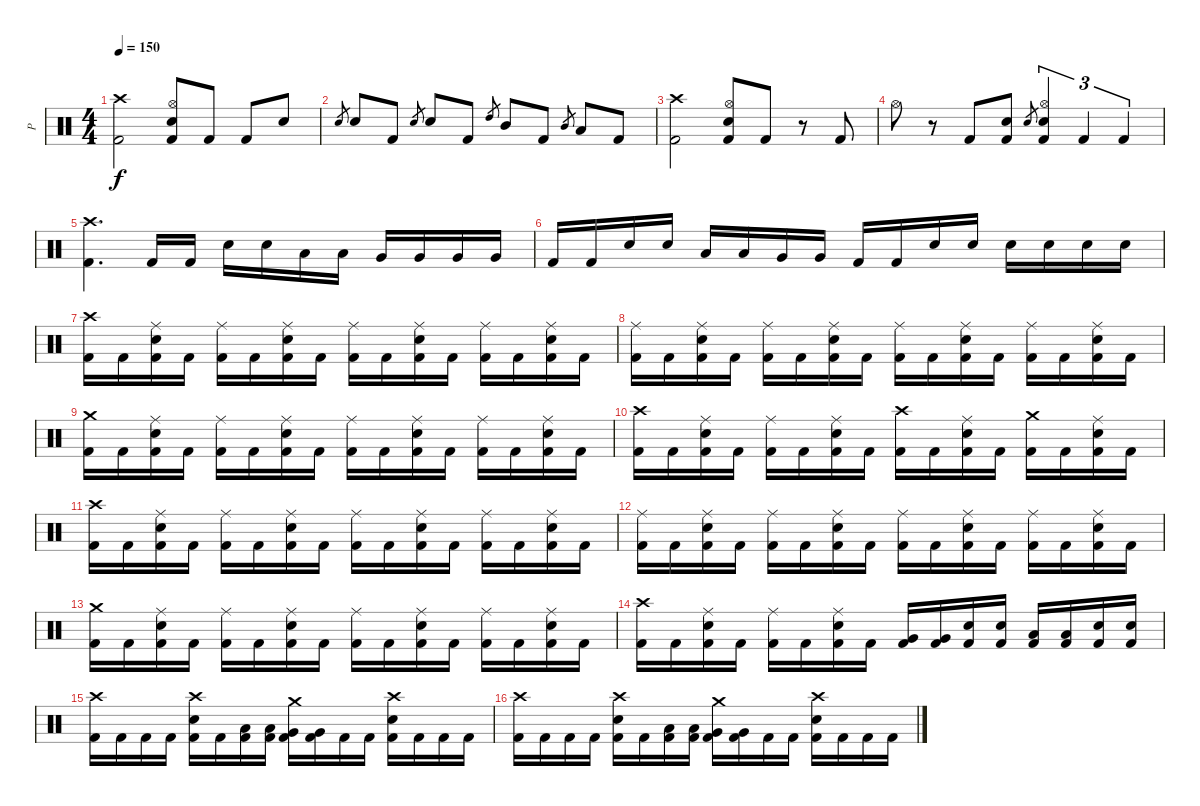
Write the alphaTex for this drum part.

\track ("P" "P") {instrument percussion}
\staff {score}
\articulation defaults
\ts (4 4)
\tempo 150
\clef neutral
\ks c
("Crash high (hit)" "Kick (hit) 2").2{dy f} ("Hi-Hat (open)" "Electric Snare (hit)" "Kick (hit) 2").8 "Kick (hit) 2".8 "Kick (hit) 2".8 "Electric Snare (hit)".8 |
"Electric Snare (hit)".8{gr} "Electric Snare (hit)".8 "Kick (hit) 2".8 "Electric Snare (hit)".8{gr} "Electric Snare (hit)".8 "Kick (hit) 2".8 "High Tom (hit)".8{gr} "Mid Tom (hit)".8 "Kick (hit) 2".8 "Mid Tom (hit)".8{gr} "Low Tom (hit)".8 "Kick (hit) 2".8 |
("Crash high (hit)" "Kick (hit) 2").2 ("Hi-Hat (open)" "Electric Snare (hit)" "Kick (hit) 2").8 "Kick (hit) 2".8 r.8 "Kick (hit) 2".8 |
"Hi-Hat (open)".8 r.8 "Kick (hit) 2".8 ("Electric Snare (hit)" "Kick (hit) 2").8 "Electric Snare (hit)".8{gr} ("Hi-Hat (open)" "Electric Snare (hit)" "Kick (hit) 2").4{tu (3 2)} "Kick (hit) 2".4{tu (3 2)} "Kick (hit) 2".4{tu (3 2)} |
("Crash high (hit)" "Kick (hit) 2").4{d} "Kick (hit) 2".16 "Kick (hit) 2".16 "Electric Snare (hit)".16 "Electric Snare (hit)".16 "Low Tom (hit)".16 "Low Tom (hit)".16 "Very Low Tom (hit)".16 "Very Low Tom (hit)".16 "Very Low Tom (hit)".16 "Very Low Tom (hit)".16 |
"Kick (hit) 2".16 "Kick (hit) 2".16 "Electric Snare (hit)".16 "Electric Snare (hit)".16 "Low Tom (hit)".16 "Low Tom (hit)".16 "Very Low Tom (hit)".16 "Very Low Tom (hit)".16 "Kick (hit) 2".16 "Kick (hit) 2".16 "Electric Snare (hit)".16 "Electric Snare (hit)".16 "Electric Snare (hit)".16 "Electric Snare (hit)".16 "Electric Snare (hit)".16 "Electric Snare (hit)".16 |
("Crash high (hit)" "Kick (hit) 2").16 "Kick (hit) 2".16 ("Ride (middle)" "Electric Snare (hit)" "Kick (hit) 2").16 "Kick (hit) 2".16 ("Ride (middle)" "Kick (hit) 2").16 "Kick (hit) 2".16 ("Ride (middle)" "Electric Snare (hit)" "Kick (hit) 2").16 "Kick (hit) 2".16 ("Ride (middle)" "Kick (hit) 2").16 "Kick (hit) 2".16 ("Ride (middle)" "Electric Snare (hit)" "Kick (hit) 2").16 "Kick (hit) 2".16 ("Ride (middle)" "Kick (hit) 2").16 "Kick (hit) 2".16 ("Ride (middle)" "Electric Snare (hit)" "Kick (hit) 2").16 "Kick (hit) 2".16 |
("Ride (middle)" "Kick (hit) 2").16 "Kick (hit) 2".16 ("Ride (middle)" "Electric Snare (hit)" "Kick (hit) 2").16 "Kick (hit) 2".16 ("Ride (middle)" "Kick (hit) 2").16 "Kick (hit) 2".16 ("Ride (middle)" "Electric Snare (hit)" "Kick (hit) 2").16 "Kick (hit) 2".16 ("Ride (middle)" "Kick (hit) 2").16 "Kick (hit) 2".16 ("Ride (middle)" "Electric Snare (hit)" "Kick (hit) 2").16 "Kick (hit) 2".16 ("Ride (middle)" "Kick (hit) 2").16 "Kick (hit) 2".16 ("Ride (middle)" "Electric Snare (hit)" "Kick (hit) 2").16 "Kick (hit) 2".16 |
("Crash medium (hit)" "Kick (hit) 2").16 "Kick (hit) 2".16 ("Ride (middle)" "Electric Snare (hit)" "Kick (hit) 2").16 "Kick (hit) 2".16 ("Ride (middle)" "Kick (hit) 2").16 "Kick (hit) 2".16 ("Ride (middle)" "Electric Snare (hit)" "Kick (hit) 2").16 "Kick (hit) 2".16 ("Ride (middle)" "Kick (hit) 2").16 "Kick (hit) 2".16 ("Ride (middle)" "Electric Snare (hit)" "Kick (hit) 2").16 "Kick (hit) 2".16 ("Ride (middle)" "Kick (hit) 2").16 "Kick (hit) 2".16 ("Ride (middle)" "Electric Snare (hit)" "Kick (hit) 2").16 "Kick (hit) 2".16 |
("Crash high (hit)" "Kick (hit) 2").16 "Kick (hit) 2".16 ("Ride (middle)" "Electric Snare (hit)" "Kick (hit) 2").16 "Kick (hit) 2".16 ("Ride (middle)" "Kick (hit) 2").16 "Kick (hit) 2".16 ("Ride (middle)" "Electric Snare (hit)" "Kick (hit) 2").16 "Kick (hit) 2".16 ("Crash high (hit)" "Kick (hit) 2").16 "Kick (hit) 2".16 ("Ride (middle)" "Electric Snare (hit)" "Kick (hit) 2").16 "Kick (hit) 2".16 ("Crash medium (hit)" "Kick (hit) 2").16 "Kick (hit) 2".16 ("Ride (middle)" "Electric Snare (hit)" "Kick (hit) 2").16 "Kick (hit) 2".16 |
("Crash high (hit)" "Kick (hit) 2").16 "Kick (hit) 2".16 ("Ride (middle)" "Electric Snare (hit)" "Kick (hit) 2").16 "Kick (hit) 2".16 ("Ride (middle)" "Kick (hit) 2").16 "Kick (hit) 2".16 ("Ride (middle)" "Electric Snare (hit)" "Kick (hit) 2").16 "Kick (hit) 2".16 ("Ride (middle)" "Kick (hit) 2").16 "Kick (hit) 2".16 ("Ride (middle)" "Electric Snare (hit)" "Kick (hit) 2").16 "Kick (hit) 2".16 ("Ride (middle)" "Kick (hit) 2").16 "Kick (hit) 2".16 ("Ride (middle)" "Electric Snare (hit)" "Kick (hit) 2").16 "Kick (hit) 2".16 |
("Ride (middle)" "Kick (hit) 2").16 "Kick (hit) 2".16 ("Ride (middle)" "Electric Snare (hit)" "Kick (hit) 2").16 "Kick (hit) 2".16 ("Ride (middle)" "Kick (hit) 2").16 "Kick (hit) 2".16 ("Ride (middle)" "Electric Snare (hit)" "Kick (hit) 2").16 "Kick (hit) 2".16 ("Ride (middle)" "Kick (hit) 2").16 "Kick (hit) 2".16 ("Ride (middle)" "Electric Snare (hit)" "Kick (hit) 2").16 "Kick (hit) 2".16 ("Ride (middle)" "Kick (hit) 2").16 "Kick (hit) 2".16 ("Ride (middle)" "Electric Snare (hit)" "Kick (hit) 2").16 "Kick (hit) 2".16 |
("Crash medium (hit)" "Kick (hit) 2").16 "Kick (hit) 2".16 ("Ride (middle)" "Electric Snare (hit)" "Kick (hit) 2").16 "Kick (hit) 2".16 ("Ride (middle)" "Kick (hit) 2").16 "Kick (hit) 2".16 ("Ride (middle)" "Electric Snare (hit)" "Kick (hit) 2").16 "Kick (hit) 2".16 ("Ride (middle)" "Kick (hit) 2").16 "Kick (hit) 2".16 ("Ride (middle)" "Electric Snare (hit)" "Kick (hit) 2").16 "Kick (hit) 2".16 ("Ride (middle)" "Kick (hit) 2").16 "Kick (hit) 2".16 ("Ride (middle)" "Electric Snare (hit)" "Kick (hit) 2").16 "Kick (hit) 2".16 |
("Crash high (hit)" "Kick (hit) 2").16 "Kick (hit) 2".16 ("Ride (middle)" "Electric Snare (hit)" "Kick (hit) 2").16 "Kick (hit) 2".16 ("Ride (middle)" "Kick (hit) 2").16 "Kick (hit) 2".16 ("Ride (middle)" "Electric Snare (hit)" "Kick (hit) 2").16 "Kick (hit) 2".16 ("Very Low Tom (hit)" "Kick (hit) 2").16 ("Very Low Tom (hit)" "Kick (hit) 2").16 ("Electric Snare (hit)" "Kick (hit) 2").16 ("Electric Snare (hit)" "Kick (hit) 2").16 ("Low Tom (hit)" "Kick (hit) 2").16 ("Low Tom (hit)" "Kick (hit) 2").16 ("Electric Snare (hit)" "Kick (hit) 2").16 ("Electric Snare (hit)" "Kick (hit) 2").16 |
("Crash high (hit)" "Kick (hit) 2").16 "Kick (hit) 2".16 "Kick (hit) 2".16 "Kick (hit) 2".16 ("Crash high (hit)" "Electric Snare (hit)" "Kick (hit) 2").16 "Kick (hit) 2".16 ("Low Tom (hit)" "Kick (hit) 2").16 ("Low Tom (hit)" "Kick (hit) 2").16 ("Crash medium (hit)" "Very Low Tom (hit)" "Kick (hit) 2").16 ("Very Low Tom (hit)" "Kick (hit) 2").16 "Kick (hit) 2".16 "Kick (hit) 2".16 ("Crash high (hit)" "Electric Snare (hit)" "Kick (hit) 2").16 "Kick (hit) 2".16 "Kick (hit) 2".16 "Kick (hit) 2".16 |
("Crash high (hit)" "Kick (hit) 2").16 "Kick (hit) 2".16 "Kick (hit) 2".16 "Kick (hit) 2".16 ("Crash high (hit)" "Electric Snare (hit)" "Kick (hit) 2").16 "Kick (hit) 2".16 ("Low Tom (hit)" "Kick (hit) 2").16 ("Low Tom (hit)" "Kick (hit) 2").16 ("Crash medium (hit)" "Very Low Tom (hit)" "Kick (hit) 2").16 ("Very Low Tom (hit)" "Kick (hit) 2").16 "Kick (hit) 2".16 "Kick (hit) 2".16 ("Crash high (hit)" "Electric Snare (hit)" "Kick (hit) 2").16 "Kick (hit) 2".16 "Kick (hit) 2".16 "Kick (hit) 2".16
